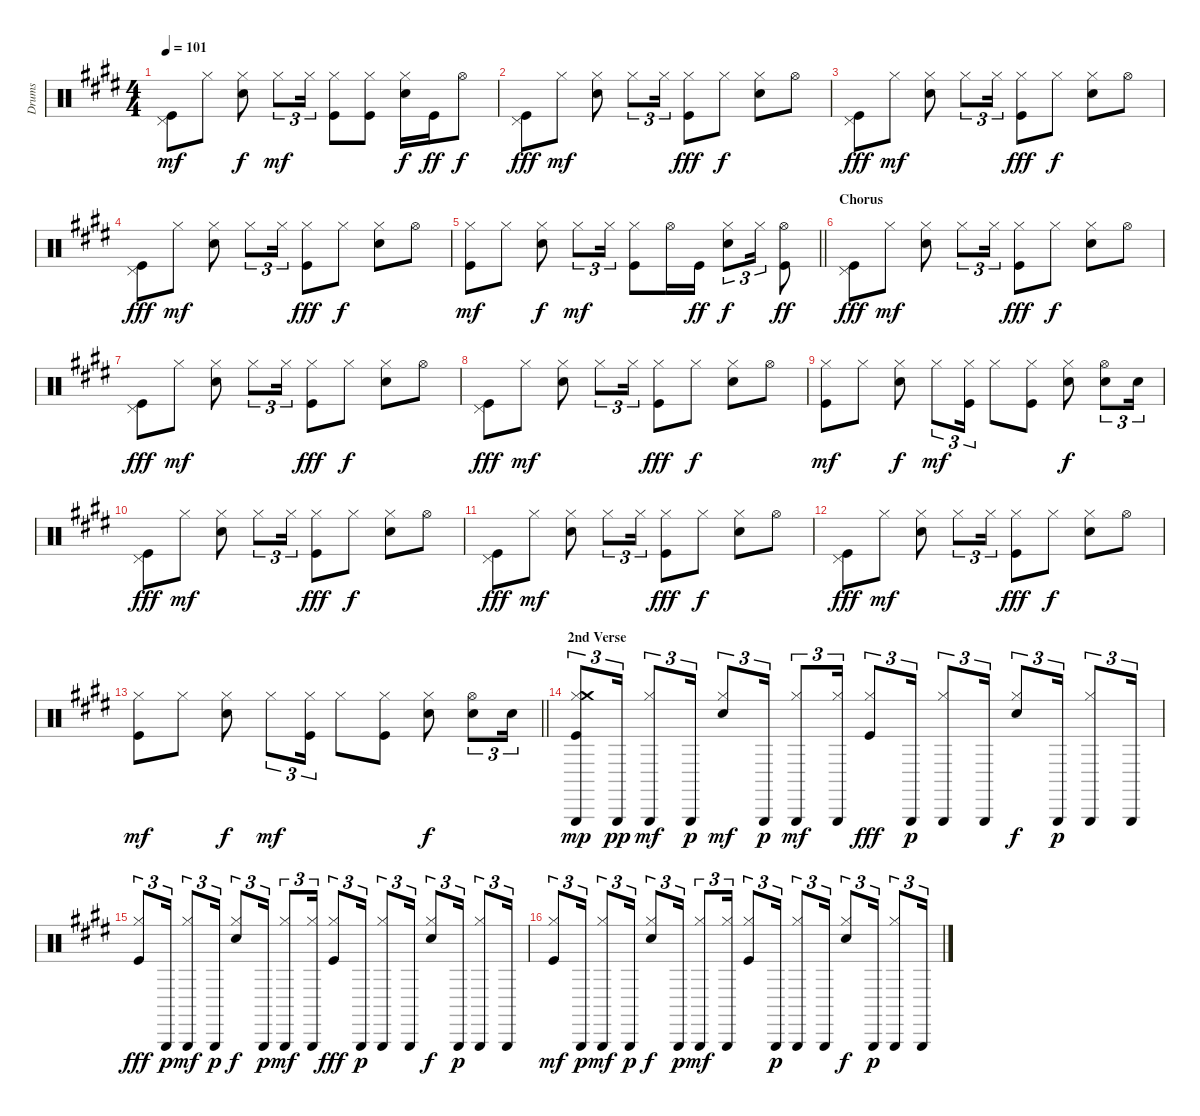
\track ("Drums" "Drums") {instrument percussion}
\staff {score}
\articulation defaults
\ts (4 4)
\tempo 101
\clef neutral
\ks e
("Kick (hit)" "Pedal Hi-Hat (hit)").8{dy mf} "Hi-Hat (closed)".8 ("Electric Snare (hit)" "Hi-Hat (closed)").8{dy f} "Hi-Hat (closed)".8{tu (3 2) dy mf} "Hi-Hat (closed)".16{tu (3 2)} ("Kick (hit)" "Hi-Hat (closed)").8 ("Kick (hit)" "Hi-Hat (closed)").8 ("Electric Snare (hit)" "Hi-Hat (closed)").16{dy f} "Kick (hit)".16{dy ff} "Hi-Hat (open)".8{dy f} |
("Kick (hit)" "Pedal Hi-Hat (hit)").8{dy fff} "Hi-Hat (closed)".8{dy mf} ("Electric Snare (hit)" "Hi-Hat (closed)").8 "Hi-Hat (closed)".8{tu (3 2)} "Hi-Hat (closed)".16{tu (3 2)} ("Kick (hit)" "Hi-Hat (closed)").8{dy fff} "Hi-Hat (closed)".8{dy f} ("Electric Snare (hit)" "Hi-Hat (closed)").8 "Hi-Hat (open)".8 |
("Kick (hit)" "Pedal Hi-Hat (hit)").8{dy fff} "Hi-Hat (closed)".8{dy mf} ("Electric Snare (hit)" "Hi-Hat (closed)").8 "Hi-Hat (closed)".8{tu (3 2)} "Hi-Hat (closed)".16{tu (3 2)} ("Kick (hit)" "Hi-Hat (closed)").8{dy fff} "Hi-Hat (closed)".8{dy f} ("Electric Snare (hit)" "Hi-Hat (closed)").8 "Hi-Hat (open)".8 |
("Kick (hit)" "Pedal Hi-Hat (hit)").8{dy fff} "Hi-Hat (closed)".8{dy mf} ("Electric Snare (hit)" "Hi-Hat (closed)").8 "Hi-Hat (closed)".8{tu (3 2)} "Hi-Hat (closed)".16{tu (3 2)} ("Kick (hit)" "Hi-Hat (closed)").8{dy fff} "Hi-Hat (closed)".8{dy f} ("Electric Snare (hit)" "Hi-Hat (closed)").8 "Hi-Hat (open)".8 |
\barLineRight lightlight
("Kick (hit)" "Hi-Hat (closed)").8{dy mf} "Hi-Hat (closed)".8 ("Electric Snare (hit)" "Hi-Hat (closed)").8{dy f} "Hi-Hat (closed)".8{tu (3 2) dy mf} "Hi-Hat (closed)".16{tu (3 2)} ("Kick (hit)" "Hi-Hat (closed)").8 "Hi-Hat (open)".16 "Kick (hit)".16{dy ff} ("Electric Snare (hit)" "Hi-Hat (closed)").8{tu (3 2) dy f} "Hi-Hat (closed)".16{tu (3 2)} ("Hi-Hat (open)" "Kick (hit)").8{dy ff} |
\section ("" "Chorus")
("Kick (hit)" "Pedal Hi-Hat (hit)").8{dy fff} "Hi-Hat (closed)".8{dy mf} ("Electric Snare (hit)" "Hi-Hat (closed)").8 "Hi-Hat (closed)".8{tu (3 2)} "Hi-Hat (closed)".16{tu (3 2)} ("Kick (hit)" "Hi-Hat (closed)").8{dy fff} "Hi-Hat (closed)".8{dy f} ("Electric Snare (hit)" "Hi-Hat (closed)").8 "Hi-Hat (open)".8 |
("Kick (hit)" "Pedal Hi-Hat (hit)").8{dy fff} "Hi-Hat (closed)".8{dy mf} ("Electric Snare (hit)" "Hi-Hat (closed)").8 "Hi-Hat (closed)".8{tu (3 2)} "Hi-Hat (closed)".16{tu (3 2)} ("Kick (hit)" "Hi-Hat (closed)").8{dy fff} "Hi-Hat (closed)".8{dy f} ("Electric Snare (hit)" "Hi-Hat (closed)").8 "Hi-Hat (open)".8 |
("Kick (hit)" "Pedal Hi-Hat (hit)").8{dy fff} "Hi-Hat (closed)".8{dy mf} ("Electric Snare (hit)" "Hi-Hat (closed)").8 "Hi-Hat (closed)".8{tu (3 2)} "Hi-Hat (closed)".16{tu (3 2)} ("Kick (hit)" "Hi-Hat (closed)").8{dy fff} "Hi-Hat (closed)".8{dy f} ("Electric Snare (hit)" "Hi-Hat (closed)").8 "Hi-Hat (open)".8 |
("Kick (hit)" "Hi-Hat (closed)").8{dy mf} "Hi-Hat (closed)".8 ("Electric Snare (hit)" "Hi-Hat (closed)").8{dy f} "Hi-Hat (closed)".8{tu (3 2) dy mf} ("Kick (hit)" "Hi-Hat (closed)").16{tu (3 2)} "Hi-Hat (closed)".8 ("Kick (hit)" "Hi-Hat (closed)").8 ("Electric Snare (hit)" "Hi-Hat (closed)").8{dy f} ("Electric Snare (hit)" "Hi-Hat (open)").8{tu (3 2)} "Electric Snare (hit)".16{tu (3 2)} |
("Kick (hit)" "Pedal Hi-Hat (hit)").8{dy fff} "Hi-Hat (closed)".8{dy mf} ("Electric Snare (hit)" "Hi-Hat (closed)").8 "Hi-Hat (closed)".8{tu (3 2)} "Hi-Hat (closed)".16{tu (3 2)} ("Kick (hit)" "Hi-Hat (closed)").8{dy fff} "Hi-Hat (closed)".8{dy f} ("Electric Snare (hit)" "Hi-Hat (closed)").8 "Hi-Hat (open)".8 |
("Kick (hit)" "Pedal Hi-Hat (hit)").8{dy fff} "Hi-Hat (closed)".8{dy mf} ("Electric Snare (hit)" "Hi-Hat (closed)").8 "Hi-Hat (closed)".8{tu (3 2)} "Hi-Hat (closed)".16{tu (3 2)} ("Kick (hit)" "Hi-Hat (closed)").8{dy fff} "Hi-Hat (closed)".8{dy f} ("Electric Snare (hit)" "Hi-Hat (closed)").8 "Hi-Hat (open)".8 |
("Kick (hit)" "Pedal Hi-Hat (hit)").8{dy fff} "Hi-Hat (closed)".8{dy mf} ("Electric Snare (hit)" "Hi-Hat (closed)").8 "Hi-Hat (closed)".8{tu (3 2)} "Hi-Hat (closed)".16{tu (3 2)} ("Kick (hit)" "Hi-Hat (closed)").8{dy fff} "Hi-Hat (closed)".8{dy f} ("Electric Snare (hit)" "Hi-Hat (closed)").8 "Hi-Hat (open)".8 |
\barLineRight lightlight
("Kick (hit)" "Hi-Hat (closed)").8{dy mf} "Hi-Hat (closed)".8 ("Electric Snare (hit)" "Hi-Hat (closed)").8{dy f} "Hi-Hat (closed)".8{tu (3 2) dy mf} ("Kick (hit)" "Hi-Hat (closed)").16{tu (3 2)} "Hi-Hat (closed)".8 ("Kick (hit)" "Hi-Hat (closed)").8 ("Electric Snare (hit)" "Hi-Hat (closed)").8{dy f} ("Electric Snare (hit)" "Hi-Hat (open)").8{tu (3 2)} "Electric Snare (hit)".16{tu (3 2)} |
\section ("" "2nd Verse")
("Triangle (hit)" "Kick (hit)" "Hi-Hat (closed)" "Crash medium (hit)").8{tu (3 2) dy mp} "Triangle (hit)".16{tu (3 2) dy pp} ("Triangle (hit)" "Hi-Hat (closed)").8{tu (3 2) dy mf} "Triangle (hit)".16{tu (3 2) dy p} ("Electric Snare (hit)" "Hi-Hat (closed)").8{tu (3 2) dy mf} "Triangle (hit)".16{tu (3 2) dy p} ("Triangle (hit)" "Hi-Hat (closed)").8{tu (3 2) dy mf} ("Triangle (hit)" "Hi-Hat (closed)").16{tu (3 2)} ("Kick (hit)" "Hi-Hat (closed)").8{tu (3 2) dy fff} "Triangle (hit)".16{tu (3 2) dy p} ("Triangle (hit)" "Hi-Hat (closed)").8{tu (3 2)} "Triangle (hit)".16{tu (3 2)} ("Electric Snare (hit)" "Hi-Hat (closed)").8{tu (3 2) dy f} "Triangle (hit)".16{tu (3 2) dy p} ("Triangle (hit)" "Hi-Hat (closed)").8{tu (3 2)} "Triangle (hit)".16{tu (3 2)} |
("Kick (hit)" "Hi-Hat (closed)").8{tu (3 2) dy fff} "Triangle (hit)".16{tu (3 2) dy p} ("Triangle (hit)" "Hi-Hat (closed)").8{tu (3 2) dy mf} "Triangle (hit)".16{tu (3 2) dy p} ("Electric Snare (hit)" "Hi-Hat (closed)").8{tu (3 2) dy f} "Triangle (hit)".16{tu (3 2) dy p} ("Triangle (hit)" "Hi-Hat (closed)").8{tu (3 2) dy mf} ("Triangle (hit)" "Hi-Hat (closed)").16{tu (3 2)} ("Kick (hit)" "Hi-Hat (closed)").8{tu (3 2) dy fff} "Triangle (hit)".16{tu (3 2) dy p} ("Triangle (hit)" "Hi-Hat (closed)").8{tu (3 2)} "Triangle (hit)".16{tu (3 2)} ("Electric Snare (hit)" "Hi-Hat (closed)").8{tu (3 2) dy f} "Triangle (hit)".16{tu (3 2) dy p} ("Triangle (hit)" "Hi-Hat (closed)").8{tu (3 2)} "Triangle (hit)".16{tu (3 2)} |
("Kick (hit)" "Hi-Hat (closed)").8{tu (3 2) dy mf} "Triangle (hit)".16{tu (3 2) dy p} ("Triangle (hit)" "Hi-Hat (closed)").8{tu (3 2) dy mf} "Triangle (hit)".16{tu (3 2) dy p} ("Electric Snare (hit)" "Hi-Hat (closed)").8{tu (3 2) dy f} "Triangle (hit)".16{tu (3 2) dy p} ("Triangle (hit)" "Hi-Hat (closed)").8{tu (3 2) dy mf} ("Triangle (hit)" "Hi-Hat (closed)").16{tu (3 2)} ("Kick (hit)" "Hi-Hat (closed)").8{tu (3 2)} "Triangle (hit)".16{tu (3 2) dy p} ("Triangle (hit)" "Hi-Hat (closed)").8{tu (3 2)} "Triangle (hit)".16{tu (3 2)} ("Electric Snare (hit)" "Hi-Hat (closed)").8{tu (3 2) dy f} "Triangle (hit)".16{tu (3 2) dy p} ("Triangle (hit)" "Hi-Hat (closed)").8{tu (3 2)} "Triangle (hit)".16{tu (3 2)}
